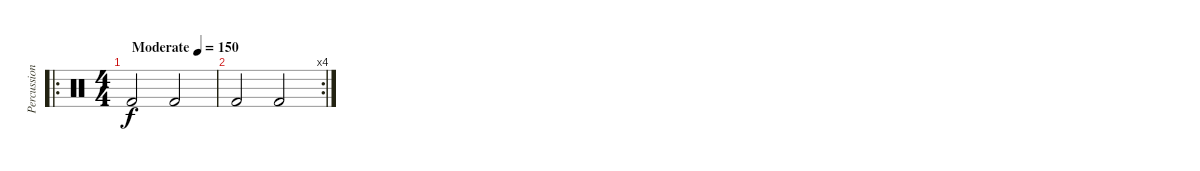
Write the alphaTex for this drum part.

\track ("Percussion" "Percussion") {instrument percussion}
\staff {score}
\articulation defaults
\ro
\ts (4 4)
\tempo (150 "Moderate")
\clef neutral
\ks c "Kick (hit) 2".2{dy f} "Kick (hit) 2".2
|
\rc 4 "Kick (hit) 2".2 "Kick (hit) 2".2
